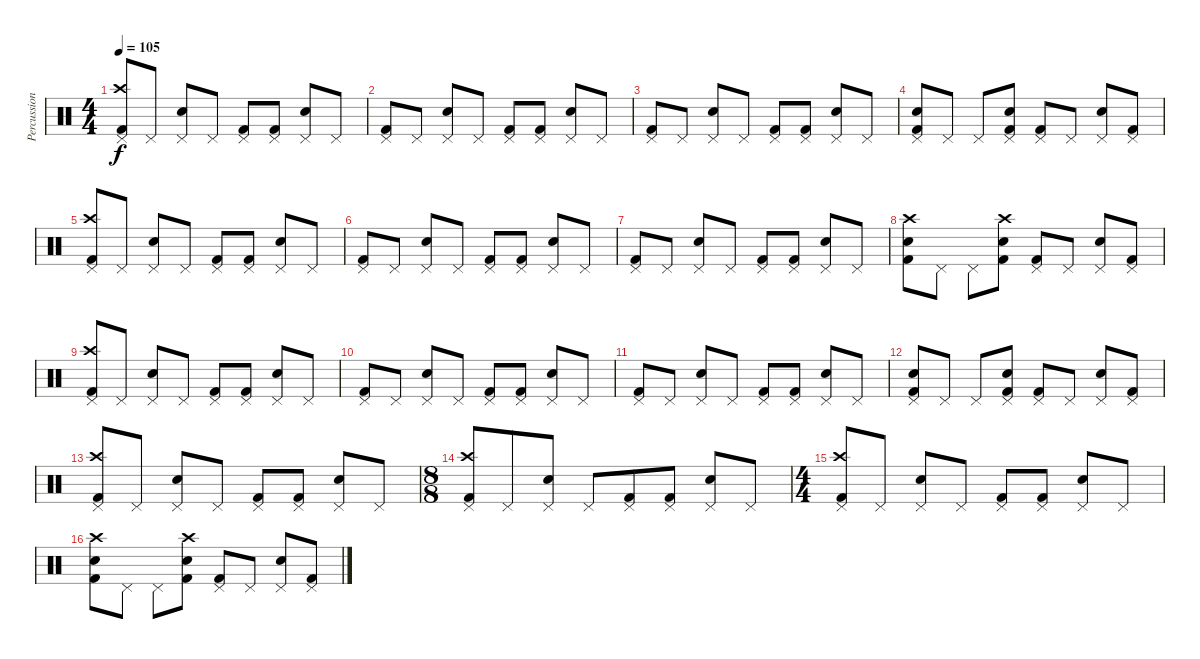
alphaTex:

\track ("Percussion" "Percussion") {instrument percussion}
\staff {score}
\articulation defaults
\ts (4 4)
\tempo 105
\clef neutral
\ks c
("Pedal Hi-Hat (hit)" "Crash high (hit)" "Kick (hit) 2").8{dy f} "Pedal Hi-Hat (hit)".8 ("Pedal Hi-Hat (hit)" "Snare (hit) 2").8 "Pedal Hi-Hat (hit)".8 ("Pedal Hi-Hat (hit)" "Kick (hit) 2").8 ("Pedal Hi-Hat (hit)" "Kick (hit) 2").8 ("Pedal Hi-Hat (hit)" "Snare (hit) 2").8 "Pedal Hi-Hat (hit)".8 |
("Pedal Hi-Hat (hit)" "Kick (hit) 2").8 "Pedal Hi-Hat (hit)".8 ("Pedal Hi-Hat (hit)" "Snare (hit) 2").8 "Pedal Hi-Hat (hit)".8 ("Pedal Hi-Hat (hit)" "Kick (hit) 2").8 ("Pedal Hi-Hat (hit)" "Kick (hit) 2").8 ("Pedal Hi-Hat (hit)" "Snare (hit) 2").8 "Pedal Hi-Hat (hit)".8 |
("Pedal Hi-Hat (hit)" "Kick (hit) 2").8 "Pedal Hi-Hat (hit)".8 ("Pedal Hi-Hat (hit)" "Snare (hit) 2").8 "Pedal Hi-Hat (hit)".8 ("Pedal Hi-Hat (hit)" "Kick (hit) 2").8 ("Pedal Hi-Hat (hit)" "Kick (hit) 2").8 ("Pedal Hi-Hat (hit)" "Snare (hit) 2").8 "Pedal Hi-Hat (hit)".8 |
("Pedal Hi-Hat (hit)" "Snare (hit) 2" "Kick (hit) 2").8 "Pedal Hi-Hat (hit)".8 "Pedal Hi-Hat (hit)".8 ("Pedal Hi-Hat (hit)" "Snare (hit) 2" "Kick (hit) 2").8 ("Pedal Hi-Hat (hit)" "Kick (hit) 2").8 "Pedal Hi-Hat (hit)".8 ("Pedal Hi-Hat (hit)" "Snare (hit) 2").8 ("Pedal Hi-Hat (hit)" "Kick (hit) 2").8 |
("Pedal Hi-Hat (hit)" "Crash high (hit)" "Kick (hit) 2").8 "Pedal Hi-Hat (hit)".8 ("Pedal Hi-Hat (hit)" "Snare (hit) 2").8 "Pedal Hi-Hat (hit)".8 ("Pedal Hi-Hat (hit)" "Kick (hit) 2").8 ("Pedal Hi-Hat (hit)" "Kick (hit) 2").8 ("Pedal Hi-Hat (hit)" "Snare (hit) 2").8 "Pedal Hi-Hat (hit)".8 |
("Pedal Hi-Hat (hit)" "Kick (hit) 2").8 "Pedal Hi-Hat (hit)".8 ("Pedal Hi-Hat (hit)" "Snare (hit) 2").8 "Pedal Hi-Hat (hit)".8 ("Pedal Hi-Hat (hit)" "Kick (hit) 2").8 ("Pedal Hi-Hat (hit)" "Kick (hit) 2").8 ("Pedal Hi-Hat (hit)" "Snare (hit) 2").8 "Pedal Hi-Hat (hit)".8 |
("Pedal Hi-Hat (hit)" "Kick (hit) 2").8 "Pedal Hi-Hat (hit)".8 ("Pedal Hi-Hat (hit)" "Snare (hit) 2").8 "Pedal Hi-Hat (hit)".8 ("Pedal Hi-Hat (hit)" "Kick (hit) 2").8 ("Pedal Hi-Hat (hit)" "Kick (hit) 2").8 ("Pedal Hi-Hat (hit)" "Snare (hit) 2").8 "Pedal Hi-Hat (hit)".8 |
("Crash high (hit)" "Snare (hit) 2" "Kick (hit) 2").8 "Pedal Hi-Hat (hit)".8 "Pedal Hi-Hat (hit)".8 ("Crash high (hit)" "Snare (hit) 2" "Kick (hit) 2").8 ("Pedal Hi-Hat (hit)" "Kick (hit) 2").8 "Pedal Hi-Hat (hit)".8 ("Pedal Hi-Hat (hit)" "Snare (hit) 2").8 ("Pedal Hi-Hat (hit)" "Kick (hit) 2").8 |
("Pedal Hi-Hat (hit)" "Crash high (hit)" "Kick (hit) 2").8 "Pedal Hi-Hat (hit)".8 ("Pedal Hi-Hat (hit)" "Snare (hit) 2").8 "Pedal Hi-Hat (hit)".8 ("Pedal Hi-Hat (hit)" "Kick (hit) 2").8 ("Pedal Hi-Hat (hit)" "Kick (hit) 2").8 ("Pedal Hi-Hat (hit)" "Snare (hit) 2").8 "Pedal Hi-Hat (hit)".8 |
("Pedal Hi-Hat (hit)" "Kick (hit) 2").8 "Pedal Hi-Hat (hit)".8 ("Pedal Hi-Hat (hit)" "Snare (hit) 2").8 "Pedal Hi-Hat (hit)".8 ("Pedal Hi-Hat (hit)" "Kick (hit) 2").8 ("Pedal Hi-Hat (hit)" "Kick (hit) 2").8 ("Pedal Hi-Hat (hit)" "Snare (hit) 2").8 "Pedal Hi-Hat (hit)".8 |
("Pedal Hi-Hat (hit)" "Kick (hit) 2").8 "Pedal Hi-Hat (hit)".8 ("Pedal Hi-Hat (hit)" "Snare (hit) 2").8 "Pedal Hi-Hat (hit)".8 ("Pedal Hi-Hat (hit)" "Kick (hit) 2").8 ("Pedal Hi-Hat (hit)" "Kick (hit) 2").8 ("Pedal Hi-Hat (hit)" "Snare (hit) 2").8 "Pedal Hi-Hat (hit)".8 |
("Pedal Hi-Hat (hit)" "Snare (hit) 2" "Kick (hit) 2").8 "Pedal Hi-Hat (hit)".8 "Pedal Hi-Hat (hit)".8 ("Pedal Hi-Hat (hit)" "Snare (hit) 2" "Kick (hit) 2").8 ("Pedal Hi-Hat (hit)" "Kick (hit) 2").8 "Pedal Hi-Hat (hit)".8 ("Pedal Hi-Hat (hit)" "Snare (hit) 2").8 ("Pedal Hi-Hat (hit)" "Kick (hit) 2").8 |
("Pedal Hi-Hat (hit)" "Crash high (hit)" "Kick (hit) 2").8 "Pedal Hi-Hat (hit)".8 ("Pedal Hi-Hat (hit)" "Snare (hit) 2").8 "Pedal Hi-Hat (hit)".8 ("Pedal Hi-Hat (hit)" "Kick (hit) 2").8 ("Pedal Hi-Hat (hit)" "Kick (hit) 2").8 ("Pedal Hi-Hat (hit)" "Snare (hit) 2").8 "Pedal Hi-Hat (hit)".8 |
\ts (8 8)
("Pedal Hi-Hat (hit)" "Crash high (hit)" "Kick (hit) 2").8 "Pedal Hi-Hat (hit)".8 ("Pedal Hi-Hat (hit)" "Snare (hit) 2").8 "Pedal Hi-Hat (hit)".8 ("Pedal Hi-Hat (hit)" "Kick (hit) 2").8 ("Pedal Hi-Hat (hit)" "Kick (hit) 2").8 ("Pedal Hi-Hat (hit)" "Snare (hit) 2").8 "Pedal Hi-Hat (hit)".8 |
\ts (4 4)
("Pedal Hi-Hat (hit)" "Crash high (hit)" "Kick (hit) 2").8 "Pedal Hi-Hat (hit)".8 ("Pedal Hi-Hat (hit)" "Snare (hit) 2").8 "Pedal Hi-Hat (hit)".8 ("Pedal Hi-Hat (hit)" "Kick (hit) 2").8 ("Pedal Hi-Hat (hit)" "Kick (hit) 2").8 ("Pedal Hi-Hat (hit)" "Snare (hit) 2").8 "Pedal Hi-Hat (hit)".8 |
("Crash high (hit)" "Snare (hit) 2" "Kick (hit) 2").8 "Pedal Hi-Hat (hit)".8 "Pedal Hi-Hat (hit)".8 ("Crash high (hit)" "Snare (hit) 2" "Kick (hit) 2").8 ("Pedal Hi-Hat (hit)" "Kick (hit) 2").8 "Pedal Hi-Hat (hit)".8 ("Pedal Hi-Hat (hit)" "Snare (hit) 2").8 ("Pedal Hi-Hat (hit)" "Kick (hit) 2").8
